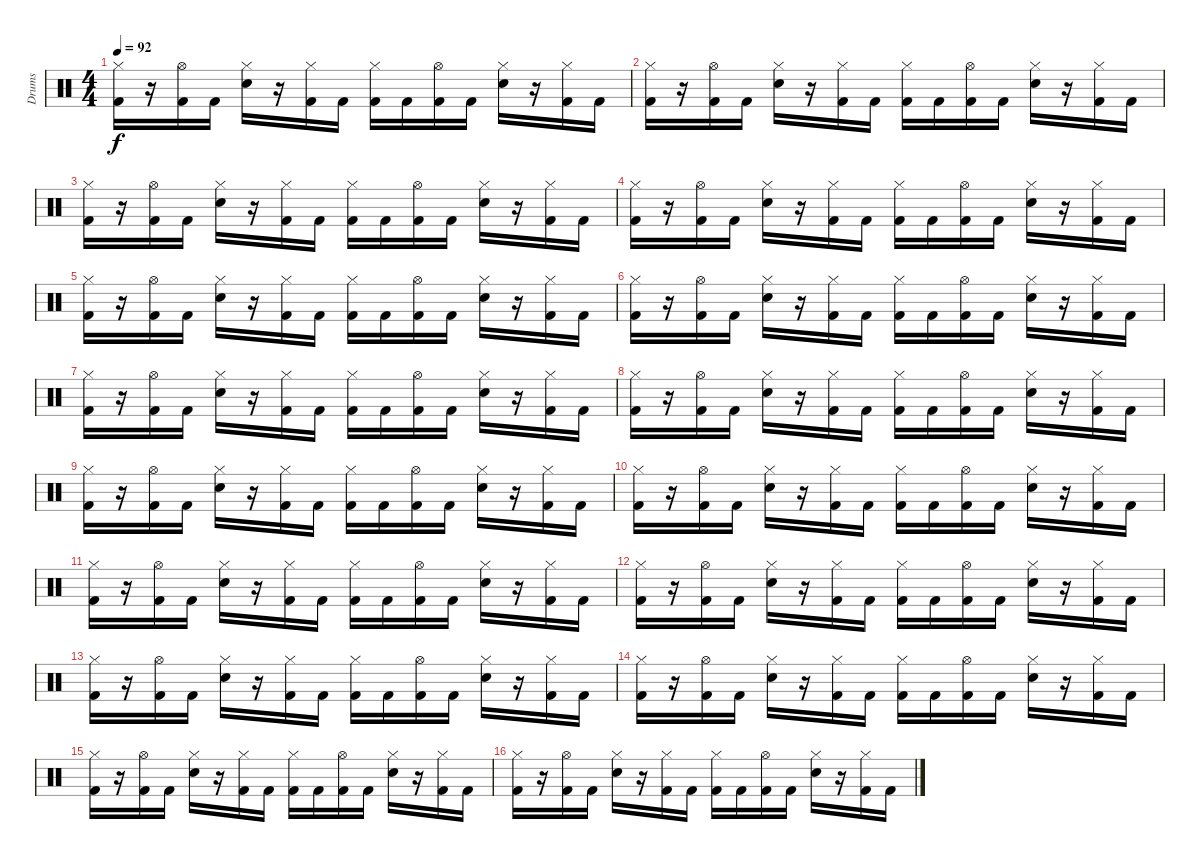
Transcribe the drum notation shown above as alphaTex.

\track ("Drums" "Drums") {instrument percussion}
\staff {score}
\articulation defaults
\ts (4 4)
\tempo 92
\clef neutral
\ks c
("Hi-Hat (closed)" "Kick (hit) 2").16{dy f} r.16 ("Hi-Hat (open)" "Kick (hit) 2").16 "Kick (hit) 2".16 ("Hi-Hat (closed)" "Snare (hit) 2").16 r.16 ("Hi-Hat (closed)" "Kick (hit) 2").16 "Kick (hit) 2".16 ("Hi-Hat (closed)" "Kick (hit) 2").16 "Kick (hit) 2".16 ("Hi-Hat (open)" "Kick (hit) 2").16 "Kick (hit) 2".16 ("Hi-Hat (closed)" "Snare (hit) 2").16 r.16 ("Hi-Hat (closed)" "Kick (hit) 2").16 "Kick (hit) 2".16 |
("Hi-Hat (closed)" "Kick (hit) 2").16 r.16 ("Hi-Hat (open)" "Kick (hit) 2").16 "Kick (hit) 2".16 ("Hi-Hat (closed)" "Snare (hit) 2").16 r.16 ("Hi-Hat (closed)" "Kick (hit) 2").16 "Kick (hit) 2".16 ("Hi-Hat (closed)" "Kick (hit) 2").16 "Kick (hit) 2".16 ("Hi-Hat (open)" "Kick (hit) 2").16 "Kick (hit) 2".16 ("Hi-Hat (closed)" "Snare (hit) 2").16 r.16 ("Hi-Hat (closed)" "Kick (hit) 2").16 "Kick (hit) 2".16 |
("Hi-Hat (closed)" "Kick (hit) 2").16 r.16 ("Hi-Hat (open)" "Kick (hit) 2").16 "Kick (hit) 2".16 ("Hi-Hat (closed)" "Snare (hit) 2").16 r.16 ("Hi-Hat (closed)" "Kick (hit) 2").16 "Kick (hit) 2".16 ("Hi-Hat (closed)" "Kick (hit) 2").16 "Kick (hit) 2".16 ("Hi-Hat (open)" "Kick (hit) 2").16 "Kick (hit) 2".16 ("Hi-Hat (closed)" "Snare (hit) 2").16 r.16 ("Hi-Hat (closed)" "Kick (hit) 2").16 "Kick (hit) 2".16 |
("Hi-Hat (closed)" "Kick (hit) 2").16 r.16 ("Hi-Hat (open)" "Kick (hit) 2").16 "Kick (hit) 2".16 ("Hi-Hat (closed)" "Snare (hit) 2").16 r.16 ("Hi-Hat (closed)" "Kick (hit) 2").16 "Kick (hit) 2".16 ("Hi-Hat (closed)" "Kick (hit) 2").16 "Kick (hit) 2".16 ("Hi-Hat (open)" "Kick (hit) 2").16 "Kick (hit) 2".16 ("Hi-Hat (closed)" "Snare (hit) 2").16 r.16 ("Hi-Hat (closed)" "Kick (hit) 2").16 "Kick (hit) 2".16 |
("Hi-Hat (closed)" "Kick (hit) 2").16 r.16 ("Hi-Hat (open)" "Kick (hit) 2").16 "Kick (hit) 2".16 ("Hi-Hat (closed)" "Snare (hit) 2").16 r.16 ("Hi-Hat (closed)" "Kick (hit) 2").16 "Kick (hit) 2".16 ("Hi-Hat (closed)" "Kick (hit) 2").16 "Kick (hit) 2".16 ("Hi-Hat (open)" "Kick (hit) 2").16 "Kick (hit) 2".16 ("Hi-Hat (closed)" "Snare (hit) 2").16 r.16 ("Hi-Hat (closed)" "Kick (hit) 2").16 "Kick (hit) 2".16 |
("Hi-Hat (closed)" "Kick (hit) 2").16 r.16 ("Hi-Hat (open)" "Kick (hit) 2").16 "Kick (hit) 2".16 ("Hi-Hat (closed)" "Snare (hit) 2").16 r.16 ("Hi-Hat (closed)" "Kick (hit) 2").16 "Kick (hit) 2".16 ("Hi-Hat (closed)" "Kick (hit) 2").16 "Kick (hit) 2".16 ("Hi-Hat (open)" "Kick (hit) 2").16 "Kick (hit) 2".16 ("Hi-Hat (closed)" "Snare (hit) 2").16 r.16 ("Hi-Hat (closed)" "Kick (hit) 2").16 "Kick (hit) 2".16 |
("Hi-Hat (closed)" "Kick (hit) 2").16 r.16 ("Hi-Hat (open)" "Kick (hit) 2").16 "Kick (hit) 2".16 ("Hi-Hat (closed)" "Snare (hit) 2").16 r.16 ("Hi-Hat (closed)" "Kick (hit) 2").16 "Kick (hit) 2".16 ("Hi-Hat (closed)" "Kick (hit) 2").16 "Kick (hit) 2".16 ("Hi-Hat (open)" "Kick (hit) 2").16 "Kick (hit) 2".16 ("Hi-Hat (closed)" "Snare (hit) 2").16 r.16 ("Hi-Hat (closed)" "Kick (hit) 2").16 "Kick (hit) 2".16 |
("Hi-Hat (closed)" "Kick (hit) 2").16 r.16 ("Hi-Hat (open)" "Kick (hit) 2").16 "Kick (hit) 2".16 ("Hi-Hat (closed)" "Snare (hit) 2").16 r.16 ("Hi-Hat (closed)" "Kick (hit) 2").16 "Kick (hit) 2".16 ("Hi-Hat (closed)" "Kick (hit) 2").16 "Kick (hit) 2".16 ("Hi-Hat (open)" "Kick (hit) 2").16 "Kick (hit) 2".16 ("Hi-Hat (closed)" "Snare (hit) 2").16 r.16 ("Hi-Hat (closed)" "Kick (hit) 2").16 "Kick (hit) 2".16 |
("Hi-Hat (closed)" "Kick (hit) 2").16 r.16 ("Hi-Hat (open)" "Kick (hit) 2").16 "Kick (hit) 2".16 ("Hi-Hat (closed)" "Snare (hit) 2").16 r.16 ("Hi-Hat (closed)" "Kick (hit) 2").16 "Kick (hit) 2".16 ("Hi-Hat (closed)" "Kick (hit) 2").16 "Kick (hit) 2".16 ("Hi-Hat (open)" "Kick (hit) 2").16 "Kick (hit) 2".16 ("Hi-Hat (closed)" "Snare (hit) 2").16 r.16 ("Hi-Hat (closed)" "Kick (hit) 2").16 "Kick (hit) 2".16 |
("Hi-Hat (closed)" "Kick (hit) 2").16 r.16 ("Hi-Hat (open)" "Kick (hit) 2").16 "Kick (hit) 2".16 ("Hi-Hat (closed)" "Snare (hit) 2").16 r.16 ("Hi-Hat (closed)" "Kick (hit) 2").16 "Kick (hit) 2".16 ("Hi-Hat (closed)" "Kick (hit) 2").16 "Kick (hit) 2".16 ("Hi-Hat (open)" "Kick (hit) 2").16 "Kick (hit) 2".16 ("Hi-Hat (closed)" "Snare (hit) 2").16 r.16 ("Hi-Hat (closed)" "Kick (hit) 2").16 "Kick (hit) 2".16 |
("Hi-Hat (closed)" "Kick (hit) 2").16 r.16 ("Hi-Hat (open)" "Kick (hit) 2").16 "Kick (hit) 2".16 ("Hi-Hat (closed)" "Snare (hit) 2").16 r.16 ("Hi-Hat (closed)" "Kick (hit) 2").16 "Kick (hit) 2".16 ("Hi-Hat (closed)" "Kick (hit) 2").16 "Kick (hit) 2".16 ("Hi-Hat (open)" "Kick (hit) 2").16 "Kick (hit) 2".16 ("Hi-Hat (closed)" "Snare (hit) 2").16 r.16 ("Hi-Hat (closed)" "Kick (hit) 2").16 "Kick (hit) 2".16 |
("Hi-Hat (closed)" "Kick (hit) 2").16 r.16 ("Hi-Hat (open)" "Kick (hit) 2").16 "Kick (hit) 2".16 ("Hi-Hat (closed)" "Snare (hit) 2").16 r.16 ("Hi-Hat (closed)" "Kick (hit) 2").16 "Kick (hit) 2".16 ("Hi-Hat (closed)" "Kick (hit) 2").16 "Kick (hit) 2".16 ("Hi-Hat (open)" "Kick (hit) 2").16 "Kick (hit) 2".16 ("Hi-Hat (closed)" "Snare (hit) 2").16 r.16 ("Hi-Hat (closed)" "Kick (hit) 2").16 "Kick (hit) 2".16 |
("Hi-Hat (closed)" "Kick (hit) 2").16 r.16 ("Hi-Hat (open)" "Kick (hit) 2").16 "Kick (hit) 2".16 ("Hi-Hat (closed)" "Snare (hit) 2").16 r.16 ("Hi-Hat (closed)" "Kick (hit) 2").16 "Kick (hit) 2".16 ("Hi-Hat (closed)" "Kick (hit) 2").16 "Kick (hit) 2".16 ("Hi-Hat (open)" "Kick (hit) 2").16 "Kick (hit) 2".16 ("Hi-Hat (closed)" "Snare (hit) 2").16 r.16 ("Hi-Hat (closed)" "Kick (hit) 2").16 "Kick (hit) 2".16 |
("Hi-Hat (closed)" "Kick (hit) 2").16 r.16 ("Hi-Hat (open)" "Kick (hit) 2").16 "Kick (hit) 2".16 ("Hi-Hat (closed)" "Snare (hit) 2").16 r.16 ("Hi-Hat (closed)" "Kick (hit) 2").16 "Kick (hit) 2".16 ("Hi-Hat (closed)" "Kick (hit) 2").16 "Kick (hit) 2".16 ("Hi-Hat (open)" "Kick (hit) 2").16 "Kick (hit) 2".16 ("Hi-Hat (closed)" "Snare (hit) 2").16 r.16 ("Hi-Hat (closed)" "Kick (hit) 2").16 "Kick (hit) 2".16 |
("Hi-Hat (closed)" "Kick (hit) 2").16 r.16 ("Hi-Hat (open)" "Kick (hit) 2").16 "Kick (hit) 2".16 ("Hi-Hat (closed)" "Snare (hit) 2").16 r.16 ("Hi-Hat (closed)" "Kick (hit) 2").16 "Kick (hit) 2".16 ("Hi-Hat (closed)" "Kick (hit) 2").16 "Kick (hit) 2".16 ("Hi-Hat (open)" "Kick (hit) 2").16 "Kick (hit) 2".16 ("Hi-Hat (closed)" "Snare (hit) 2").16 r.16 ("Hi-Hat (closed)" "Kick (hit) 2").16 "Kick (hit) 2".16 |
("Hi-Hat (closed)" "Kick (hit) 2").16 r.16 ("Hi-Hat (open)" "Kick (hit) 2").16 "Kick (hit) 2".16 ("Hi-Hat (closed)" "Snare (hit) 2").16 r.16 ("Hi-Hat (closed)" "Kick (hit) 2").16 "Kick (hit) 2".16 ("Hi-Hat (closed)" "Kick (hit) 2").16 "Kick (hit) 2".16 ("Hi-Hat (open)" "Kick (hit) 2").16 "Kick (hit) 2".16 ("Hi-Hat (closed)" "Snare (hit) 2").16 r.16 ("Hi-Hat (closed)" "Kick (hit) 2").16 "Kick (hit) 2".16
